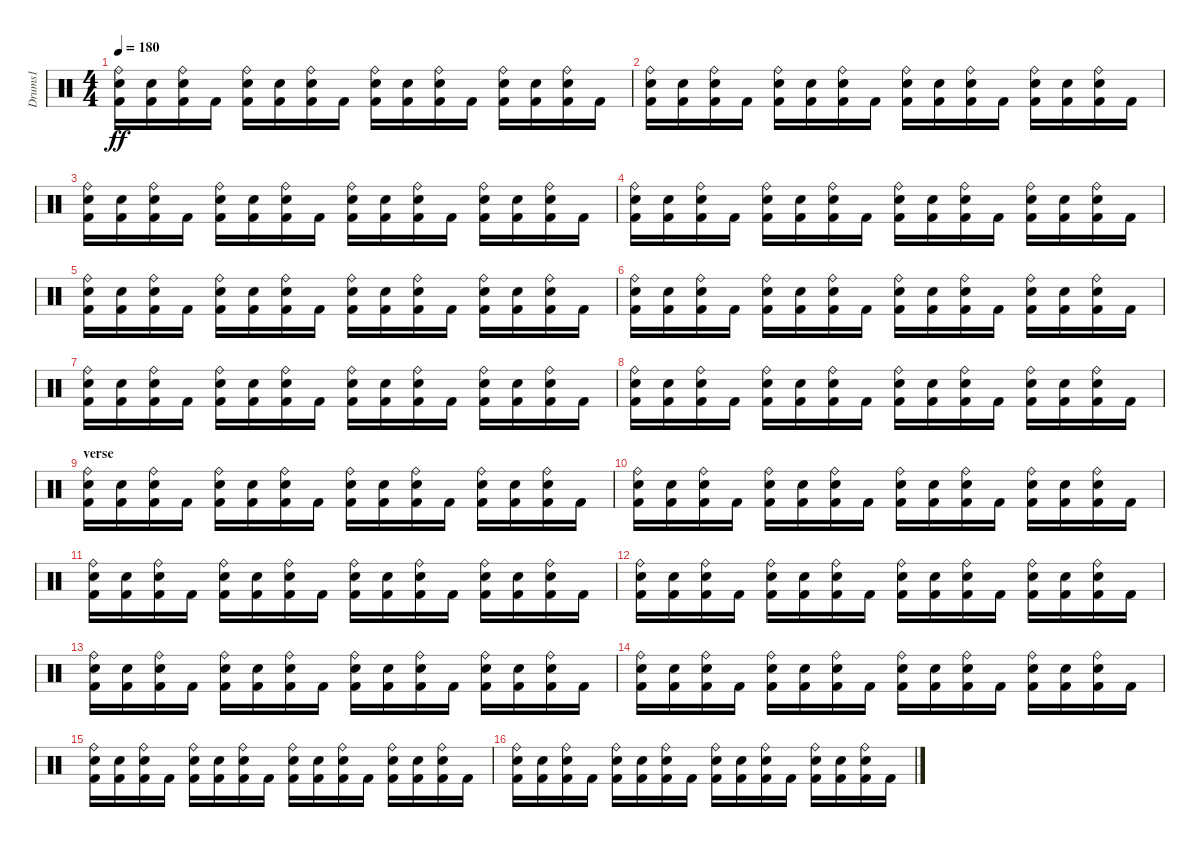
\track ("Drums1" "Drums1") {instrument percussion}
\staff {score}
\articulation defaults
\ts (4 4)
\tempo 180
\clef neutral
\ks c
("Ride (bell)" "Electric Snare (hit)" "Kick (hit) 2").16{dy ff} ("Electric Snare (hit)" "Kick (hit) 2").16 ("Ride (bell)" "Electric Snare (hit)" "Kick (hit) 2").16 "Kick (hit) 2".16 ("Ride (bell)" "Electric Snare (hit)" "Kick (hit) 2").16 ("Electric Snare (hit)" "Kick (hit) 2").16 ("Ride (bell)" "Electric Snare (hit)" "Kick (hit) 2").16 "Kick (hit) 2".16 ("Ride (bell)" "Electric Snare (hit)" "Kick (hit) 2").16 ("Electric Snare (hit)" "Kick (hit) 2").16 ("Ride (bell)" "Electric Snare (hit)" "Kick (hit) 2").16 "Kick (hit) 2".16 ("Ride (bell)" "Electric Snare (hit)" "Kick (hit) 2").16 ("Electric Snare (hit)" "Kick (hit) 2").16 ("Ride (bell)" "Electric Snare (hit)" "Kick (hit) 2").16 "Kick (hit) 2".16 |
("Ride (bell)" "Electric Snare (hit)" "Kick (hit) 2").16 ("Electric Snare (hit)" "Kick (hit) 2").16 ("Ride (bell)" "Electric Snare (hit)" "Kick (hit) 2").16 "Kick (hit) 2".16 ("Ride (bell)" "Electric Snare (hit)" "Kick (hit) 2").16 ("Electric Snare (hit)" "Kick (hit) 2").16 ("Ride (bell)" "Electric Snare (hit)" "Kick (hit) 2").16 "Kick (hit) 2".16 ("Ride (bell)" "Electric Snare (hit)" "Kick (hit) 2").16 ("Electric Snare (hit)" "Kick (hit) 2").16 ("Ride (bell)" "Electric Snare (hit)" "Kick (hit) 2").16 "Kick (hit) 2".16 ("Ride (bell)" "Electric Snare (hit)" "Kick (hit) 2").16 ("Electric Snare (hit)" "Kick (hit) 2").16 ("Ride (bell)" "Electric Snare (hit)" "Kick (hit) 2").16 "Kick (hit) 2".16 |
("Ride (bell)" "Electric Snare (hit)" "Kick (hit) 2").16 ("Electric Snare (hit)" "Kick (hit) 2").16 ("Ride (bell)" "Electric Snare (hit)" "Kick (hit) 2").16 "Kick (hit) 2".16 ("Ride (bell)" "Electric Snare (hit)" "Kick (hit) 2").16 ("Electric Snare (hit)" "Kick (hit) 2").16 ("Ride (bell)" "Electric Snare (hit)" "Kick (hit) 2").16 "Kick (hit) 2".16 ("Ride (bell)" "Electric Snare (hit)" "Kick (hit) 2").16 ("Electric Snare (hit)" "Kick (hit) 2").16 ("Ride (bell)" "Electric Snare (hit)" "Kick (hit) 2").16 "Kick (hit) 2".16 ("Ride (bell)" "Electric Snare (hit)" "Kick (hit) 2").16 ("Electric Snare (hit)" "Kick (hit) 2").16 ("Ride (bell)" "Electric Snare (hit)" "Kick (hit) 2").16 "Kick (hit) 2".16 |
("Ride (bell)" "Electric Snare (hit)" "Kick (hit) 2").16 ("Electric Snare (hit)" "Kick (hit) 2").16 ("Ride (bell)" "Electric Snare (hit)" "Kick (hit) 2").16 "Kick (hit) 2".16 ("Ride (bell)" "Electric Snare (hit)" "Kick (hit) 2").16 ("Electric Snare (hit)" "Kick (hit) 2").16 ("Ride (bell)" "Electric Snare (hit)" "Kick (hit) 2").16 "Kick (hit) 2".16 ("Ride (bell)" "Electric Snare (hit)" "Kick (hit) 2").16 ("Electric Snare (hit)" "Kick (hit) 2").16 ("Ride (bell)" "Electric Snare (hit)" "Kick (hit) 2").16 "Kick (hit) 2".16 ("Ride (bell)" "Electric Snare (hit)" "Kick (hit) 2").16 ("Electric Snare (hit)" "Kick (hit) 2").16 ("Ride (bell)" "Electric Snare (hit)" "Kick (hit) 2").16 "Kick (hit) 2".16 |
("Ride (bell)" "Electric Snare (hit)" "Kick (hit) 2").16 ("Electric Snare (hit)" "Kick (hit) 2").16 ("Ride (bell)" "Electric Snare (hit)" "Kick (hit) 2").16 "Kick (hit) 2".16 ("Ride (bell)" "Electric Snare (hit)" "Kick (hit) 2").16 ("Electric Snare (hit)" "Kick (hit) 2").16 ("Ride (bell)" "Electric Snare (hit)" "Kick (hit) 2").16 "Kick (hit) 2".16 ("Ride (bell)" "Electric Snare (hit)" "Kick (hit) 2").16 ("Electric Snare (hit)" "Kick (hit) 2").16 ("Ride (bell)" "Electric Snare (hit)" "Kick (hit) 2").16 "Kick (hit) 2".16 ("Ride (bell)" "Electric Snare (hit)" "Kick (hit) 2").16 ("Electric Snare (hit)" "Kick (hit) 2").16 ("Ride (bell)" "Electric Snare (hit)" "Kick (hit) 2").16 "Kick (hit) 2".16 |
("Ride (bell)" "Electric Snare (hit)" "Kick (hit) 2").16 ("Electric Snare (hit)" "Kick (hit) 2").16 ("Ride (bell)" "Electric Snare (hit)" "Kick (hit) 2").16 "Kick (hit) 2".16 ("Ride (bell)" "Electric Snare (hit)" "Kick (hit) 2").16 ("Electric Snare (hit)" "Kick (hit) 2").16 ("Ride (bell)" "Electric Snare (hit)" "Kick (hit) 2").16 "Kick (hit) 2".16 ("Ride (bell)" "Electric Snare (hit)" "Kick (hit) 2").16 ("Electric Snare (hit)" "Kick (hit) 2").16 ("Ride (bell)" "Electric Snare (hit)" "Kick (hit) 2").16 "Kick (hit) 2".16 ("Ride (bell)" "Electric Snare (hit)" "Kick (hit) 2").16 ("Electric Snare (hit)" "Kick (hit) 2").16 ("Ride (bell)" "Electric Snare (hit)" "Kick (hit) 2").16 "Kick (hit) 2".16 |
("Ride (bell)" "Electric Snare (hit)" "Kick (hit) 2").16 ("Electric Snare (hit)" "Kick (hit) 2").16 ("Ride (bell)" "Electric Snare (hit)" "Kick (hit) 2").16 "Kick (hit) 2".16 ("Ride (bell)" "Electric Snare (hit)" "Kick (hit) 2").16 ("Electric Snare (hit)" "Kick (hit) 2").16 ("Ride (bell)" "Electric Snare (hit)" "Kick (hit) 2").16 "Kick (hit) 2".16 ("Ride (bell)" "Electric Snare (hit)" "Kick (hit) 2").16 ("Electric Snare (hit)" "Kick (hit) 2").16 ("Ride (bell)" "Electric Snare (hit)" "Kick (hit) 2").16 "Kick (hit) 2".16 ("Ride (bell)" "Electric Snare (hit)" "Kick (hit) 2").16 ("Electric Snare (hit)" "Kick (hit) 2").16 ("Ride (bell)" "Electric Snare (hit)" "Kick (hit) 2").16 "Kick (hit) 2".16 |
("Ride (bell)" "Electric Snare (hit)" "Kick (hit) 2").16 ("Electric Snare (hit)" "Kick (hit) 2").16 ("Ride (bell)" "Electric Snare (hit)" "Kick (hit) 2").16 "Kick (hit) 2".16 ("Ride (bell)" "Electric Snare (hit)" "Kick (hit) 2").16 ("Electric Snare (hit)" "Kick (hit) 2").16 ("Ride (bell)" "Electric Snare (hit)" "Kick (hit) 2").16 "Kick (hit) 2".16 ("Ride (bell)" "Electric Snare (hit)" "Kick (hit) 2").16 ("Electric Snare (hit)" "Kick (hit) 2").16 ("Ride (bell)" "Electric Snare (hit)" "Kick (hit) 2").16 "Kick (hit) 2".16 ("Ride (bell)" "Electric Snare (hit)" "Kick (hit) 2").16 ("Electric Snare (hit)" "Kick (hit) 2").16 ("Ride (bell)" "Electric Snare (hit)" "Kick (hit) 2").16 "Kick (hit) 2".16 |
\section ("" "verse")
("Ride (bell)" "Electric Snare (hit)" "Kick (hit) 2").16 ("Electric Snare (hit)" "Kick (hit) 2").16 ("Ride (bell)" "Electric Snare (hit)" "Kick (hit) 2").16 "Kick (hit) 2".16 ("Ride (bell)" "Electric Snare (hit)" "Kick (hit) 2").16 ("Electric Snare (hit)" "Kick (hit) 2").16 ("Ride (bell)" "Electric Snare (hit)" "Kick (hit) 2").16 "Kick (hit) 2".16 ("Ride (bell)" "Electric Snare (hit)" "Kick (hit) 2").16 ("Electric Snare (hit)" "Kick (hit) 2").16 ("Ride (bell)" "Electric Snare (hit)" "Kick (hit) 2").16 "Kick (hit) 2".16 ("Ride (bell)" "Electric Snare (hit)" "Kick (hit) 2").16 ("Electric Snare (hit)" "Kick (hit) 2").16 ("Ride (bell)" "Electric Snare (hit)" "Kick (hit) 2").16 "Kick (hit) 2".16 |
("Ride (bell)" "Electric Snare (hit)" "Kick (hit) 2").16 ("Electric Snare (hit)" "Kick (hit) 2").16 ("Ride (bell)" "Electric Snare (hit)" "Kick (hit) 2").16 "Kick (hit) 2".16 ("Ride (bell)" "Electric Snare (hit)" "Kick (hit) 2").16 ("Electric Snare (hit)" "Kick (hit) 2").16 ("Ride (bell)" "Electric Snare (hit)" "Kick (hit) 2").16 "Kick (hit) 2".16 ("Ride (bell)" "Electric Snare (hit)" "Kick (hit) 2").16 ("Electric Snare (hit)" "Kick (hit) 2").16 ("Ride (bell)" "Electric Snare (hit)" "Kick (hit) 2").16 "Kick (hit) 2".16 ("Ride (bell)" "Electric Snare (hit)" "Kick (hit) 2").16 ("Electric Snare (hit)" "Kick (hit) 2").16 ("Ride (bell)" "Electric Snare (hit)" "Kick (hit) 2").16 "Kick (hit) 2".16 |
("Ride (bell)" "Electric Snare (hit)" "Kick (hit) 2").16 ("Electric Snare (hit)" "Kick (hit) 2").16 ("Ride (bell)" "Electric Snare (hit)" "Kick (hit) 2").16 "Kick (hit) 2".16 ("Ride (bell)" "Electric Snare (hit)" "Kick (hit) 2").16 ("Electric Snare (hit)" "Kick (hit) 2").16 ("Ride (bell)" "Electric Snare (hit)" "Kick (hit) 2").16 "Kick (hit) 2".16 ("Ride (bell)" "Electric Snare (hit)" "Kick (hit) 2").16 ("Electric Snare (hit)" "Kick (hit) 2").16 ("Ride (bell)" "Electric Snare (hit)" "Kick (hit) 2").16 "Kick (hit) 2".16 ("Ride (bell)" "Electric Snare (hit)" "Kick (hit) 2").16 ("Electric Snare (hit)" "Kick (hit) 2").16 ("Ride (bell)" "Electric Snare (hit)" "Kick (hit) 2").16 "Kick (hit) 2".16 |
("Ride (bell)" "Electric Snare (hit)" "Kick (hit) 2").16 ("Electric Snare (hit)" "Kick (hit) 2").16 ("Ride (bell)" "Electric Snare (hit)" "Kick (hit) 2").16 "Kick (hit) 2".16 ("Ride (bell)" "Electric Snare (hit)" "Kick (hit) 2").16 ("Electric Snare (hit)" "Kick (hit) 2").16 ("Ride (bell)" "Electric Snare (hit)" "Kick (hit) 2").16 "Kick (hit) 2".16 ("Ride (bell)" "Electric Snare (hit)" "Kick (hit) 2").16 ("Electric Snare (hit)" "Kick (hit) 2").16 ("Ride (bell)" "Electric Snare (hit)" "Kick (hit) 2").16 "Kick (hit) 2".16 ("Ride (bell)" "Electric Snare (hit)" "Kick (hit) 2").16 ("Electric Snare (hit)" "Kick (hit) 2").16 ("Ride (bell)" "Electric Snare (hit)" "Kick (hit) 2").16 "Kick (hit) 2".16 |
("Ride (bell)" "Electric Snare (hit)" "Kick (hit) 2").16 ("Electric Snare (hit)" "Kick (hit) 2").16 ("Ride (bell)" "Electric Snare (hit)" "Kick (hit) 2").16 "Kick (hit) 2".16 ("Ride (bell)" "Electric Snare (hit)" "Kick (hit) 2").16 ("Electric Snare (hit)" "Kick (hit) 2").16 ("Ride (bell)" "Electric Snare (hit)" "Kick (hit) 2").16 "Kick (hit) 2".16 ("Ride (bell)" "Electric Snare (hit)" "Kick (hit) 2").16 ("Electric Snare (hit)" "Kick (hit) 2").16 ("Ride (bell)" "Electric Snare (hit)" "Kick (hit) 2").16 "Kick (hit) 2".16 ("Ride (bell)" "Electric Snare (hit)" "Kick (hit) 2").16 ("Electric Snare (hit)" "Kick (hit) 2").16 ("Ride (bell)" "Electric Snare (hit)" "Kick (hit) 2").16 "Kick (hit) 2".16 |
("Ride (bell)" "Electric Snare (hit)" "Kick (hit) 2").16 ("Electric Snare (hit)" "Kick (hit) 2").16 ("Ride (bell)" "Electric Snare (hit)" "Kick (hit) 2").16 "Kick (hit) 2".16 ("Ride (bell)" "Electric Snare (hit)" "Kick (hit) 2").16 ("Electric Snare (hit)" "Kick (hit) 2").16 ("Ride (bell)" "Electric Snare (hit)" "Kick (hit) 2").16 "Kick (hit) 2".16 ("Ride (bell)" "Electric Snare (hit)" "Kick (hit) 2").16 ("Electric Snare (hit)" "Kick (hit) 2").16 ("Ride (bell)" "Electric Snare (hit)" "Kick (hit) 2").16 "Kick (hit) 2".16 ("Ride (bell)" "Electric Snare (hit)" "Kick (hit) 2").16 ("Electric Snare (hit)" "Kick (hit) 2").16 ("Ride (bell)" "Electric Snare (hit)" "Kick (hit) 2").16 "Kick (hit) 2".16 |
("Ride (bell)" "Electric Snare (hit)" "Kick (hit) 2").16 ("Electric Snare (hit)" "Kick (hit) 2").16 ("Ride (bell)" "Electric Snare (hit)" "Kick (hit) 2").16 "Kick (hit) 2".16 ("Ride (bell)" "Electric Snare (hit)" "Kick (hit) 2").16 ("Electric Snare (hit)" "Kick (hit) 2").16 ("Ride (bell)" "Electric Snare (hit)" "Kick (hit) 2").16 "Kick (hit) 2".16 ("Ride (bell)" "Electric Snare (hit)" "Kick (hit) 2").16 ("Electric Snare (hit)" "Kick (hit) 2").16 ("Ride (bell)" "Electric Snare (hit)" "Kick (hit) 2").16 "Kick (hit) 2".16 ("Ride (bell)" "Electric Snare (hit)" "Kick (hit) 2").16 ("Electric Snare (hit)" "Kick (hit) 2").16 ("Ride (bell)" "Electric Snare (hit)" "Kick (hit) 2").16 "Kick (hit) 2".16 |
("Ride (bell)" "Electric Snare (hit)" "Kick (hit) 2").16 ("Electric Snare (hit)" "Kick (hit) 2").16 ("Ride (bell)" "Electric Snare (hit)" "Kick (hit) 2").16 "Kick (hit) 2".16 ("Ride (bell)" "Electric Snare (hit)" "Kick (hit) 2").16 ("Electric Snare (hit)" "Kick (hit) 2").16 ("Ride (bell)" "Electric Snare (hit)" "Kick (hit) 2").16 "Kick (hit) 2".16 ("Ride (bell)" "Electric Snare (hit)" "Kick (hit) 2").16 ("Electric Snare (hit)" "Kick (hit) 2").16 ("Ride (bell)" "Electric Snare (hit)" "Kick (hit) 2").16 "Kick (hit) 2".16 ("Ride (bell)" "Electric Snare (hit)" "Kick (hit) 2").16 ("Electric Snare (hit)" "Kick (hit) 2").16 ("Ride (bell)" "Electric Snare (hit)" "Kick (hit) 2").16 "Kick (hit) 2".16
